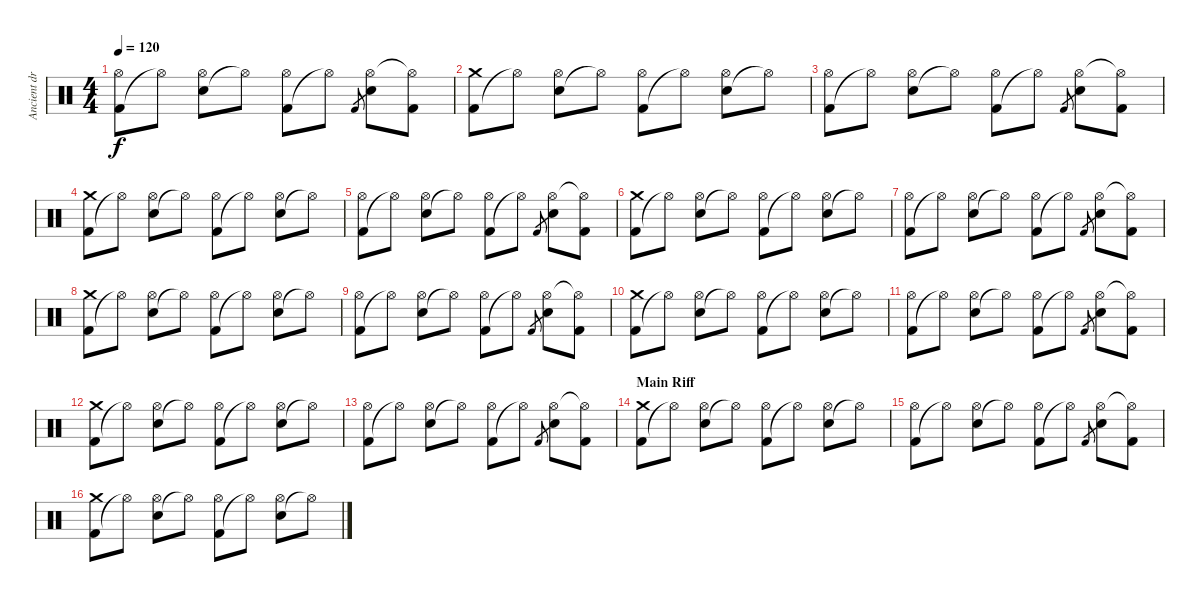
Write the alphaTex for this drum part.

\track ("Ancient drum type things :S" "Ancient dr") {instrument percussion}
\staff {score}
\articulation defaults
\ts (4 4)
\tempo 120
\clef neutral
\ks c
("Kick (hit) 2" "Hi-Hat (open)").8{dy f} "Hi-Hat (open)"{t}.8 ("Electric Snare (hit)" "Hi-Hat (open)").8 "Hi-Hat (open)"{t}.8 ("Kick (hit) 2" "Hi-Hat (open)").8 "Hi-Hat (open)"{t}.8 "Kick (hit) 2".8{gr} ("Electric Snare (hit)" "Hi-Hat (open)").8 ("Kick (hit) 2" "Hi-Hat (open)"{t}).8 |
("Kick (hit) 2" "Crash medium (hit)").8 "Hi-Hat (open)"{t}.8 ("Electric Snare (hit)" "Hi-Hat (open)").8 "Hi-Hat (open)"{t}.8 ("Kick (hit) 2" "Hi-Hat (open)").8 "Hi-Hat (open)"{t}.8 ("Electric Snare (hit)" "Hi-Hat (open)").8 "Hi-Hat (open)"{t}.8 |
("Kick (hit) 2" "Hi-Hat (open)").8 "Hi-Hat (open)"{t}.8 ("Electric Snare (hit)" "Hi-Hat (open)").8 "Hi-Hat (open)"{t}.8 ("Kick (hit) 2" "Hi-Hat (open)").8 "Hi-Hat (open)"{t}.8 "Kick (hit) 2".8{gr} ("Electric Snare (hit)" "Hi-Hat (open)").8 ("Kick (hit) 2" "Hi-Hat (open)"{t}).8 |
("Kick (hit) 2" "Crash medium (hit)").8 "Hi-Hat (open)"{t}.8 ("Electric Snare (hit)" "Hi-Hat (open)").8 "Hi-Hat (open)"{t}.8 ("Kick (hit) 2" "Hi-Hat (open)").8 "Hi-Hat (open)"{t}.8 ("Electric Snare (hit)" "Hi-Hat (open)").8 "Hi-Hat (open)"{t}.8 |
("Kick (hit) 2" "Hi-Hat (open)").8 "Hi-Hat (open)"{t}.8 ("Electric Snare (hit)" "Hi-Hat (open)").8 "Hi-Hat (open)"{t}.8 ("Kick (hit) 2" "Hi-Hat (open)").8 "Hi-Hat (open)"{t}.8 "Kick (hit) 2".8{gr} ("Electric Snare (hit)" "Hi-Hat (open)").8 ("Kick (hit) 2" "Hi-Hat (open)"{t}).8 |
("Kick (hit) 2" "Crash medium (hit)").8 "Hi-Hat (open)"{t}.8 ("Electric Snare (hit)" "Hi-Hat (open)").8 "Hi-Hat (open)"{t}.8 ("Kick (hit) 2" "Hi-Hat (open)").8 "Hi-Hat (open)"{t}.8 ("Electric Snare (hit)" "Hi-Hat (open)").8 "Hi-Hat (open)"{t}.8 |
("Kick (hit) 2" "Hi-Hat (open)").8 "Hi-Hat (open)"{t}.8 ("Electric Snare (hit)" "Hi-Hat (open)").8 "Hi-Hat (open)"{t}.8 ("Kick (hit) 2" "Hi-Hat (open)").8 "Hi-Hat (open)"{t}.8 "Kick (hit) 2".8{gr} ("Electric Snare (hit)" "Hi-Hat (open)").8 ("Kick (hit) 2" "Hi-Hat (open)"{t}).8 |
("Kick (hit) 2" "Crash medium (hit)").8 "Hi-Hat (open)"{t}.8 ("Electric Snare (hit)" "Hi-Hat (open)").8 "Hi-Hat (open)"{t}.8 ("Kick (hit) 2" "Hi-Hat (open)").8 "Hi-Hat (open)"{t}.8 ("Electric Snare (hit)" "Hi-Hat (open)").8 "Hi-Hat (open)"{t}.8 |
("Kick (hit) 2" "Hi-Hat (open)").8 "Hi-Hat (open)"{t}.8 ("Electric Snare (hit)" "Hi-Hat (open)").8 "Hi-Hat (open)"{t}.8 ("Kick (hit) 2" "Hi-Hat (open)").8 "Hi-Hat (open)"{t}.8 "Kick (hit) 2".8{gr} ("Electric Snare (hit)" "Hi-Hat (open)").8 ("Kick (hit) 2" "Hi-Hat (open)"{t}).8 |
("Kick (hit) 2" "Crash medium (hit)").8 "Hi-Hat (open)"{t}.8 ("Electric Snare (hit)" "Hi-Hat (open)").8 "Hi-Hat (open)"{t}.8 ("Kick (hit) 2" "Hi-Hat (open)").8 "Hi-Hat (open)"{t}.8 ("Electric Snare (hit)" "Hi-Hat (open)").8 "Hi-Hat (open)"{t}.8 |
("Kick (hit) 2" "Hi-Hat (open)").8 "Hi-Hat (open)"{t}.8 ("Electric Snare (hit)" "Hi-Hat (open)").8 "Hi-Hat (open)"{t}.8 ("Kick (hit) 2" "Hi-Hat (open)").8 "Hi-Hat (open)"{t}.8 "Kick (hit) 2".8{gr} ("Electric Snare (hit)" "Hi-Hat (open)").8 ("Kick (hit) 2" "Hi-Hat (open)"{t}).8 |
("Kick (hit) 2" "Crash medium (hit)").8 "Hi-Hat (open)"{t}.8 ("Electric Snare (hit)" "Hi-Hat (open)").8 "Hi-Hat (open)"{t}.8 ("Kick (hit) 2" "Hi-Hat (open)").8 "Hi-Hat (open)"{t}.8 ("Electric Snare (hit)" "Hi-Hat (open)").8 "Hi-Hat (open)"{t}.8 |
("Kick (hit) 2" "Hi-Hat (open)").8 "Hi-Hat (open)"{t}.8 ("Electric Snare (hit)" "Hi-Hat (open)").8 "Hi-Hat (open)"{t}.8 ("Kick (hit) 2" "Hi-Hat (open)").8 "Hi-Hat (open)"{t}.8 "Kick (hit) 2".8{gr} ("Electric Snare (hit)" "Hi-Hat (open)").8 ("Kick (hit) 2" "Hi-Hat (open)"{t}).8 |
\section ("" "Main Riff")
("Kick (hit) 2" "Crash medium (hit)").8 "Hi-Hat (open)"{t}.8 ("Electric Snare (hit)" "Hi-Hat (open)").8 "Hi-Hat (open)"{t}.8 ("Kick (hit) 2" "Hi-Hat (open)").8 "Hi-Hat (open)"{t}.8 ("Electric Snare (hit)" "Hi-Hat (open)").8 "Hi-Hat (open)"{t}.8 |
("Kick (hit) 2" "Hi-Hat (open)").8 "Hi-Hat (open)"{t}.8 ("Electric Snare (hit)" "Hi-Hat (open)").8 "Hi-Hat (open)"{t}.8 ("Kick (hit) 2" "Hi-Hat (open)").8 "Hi-Hat (open)"{t}.8 "Kick (hit) 2".8{gr} ("Electric Snare (hit)" "Hi-Hat (open)").8 ("Kick (hit) 2" "Hi-Hat (open)"{t}).8 |
("Kick (hit) 2" "Crash medium (hit)").8 "Hi-Hat (open)"{t}.8 ("Electric Snare (hit)" "Hi-Hat (open)").8 "Hi-Hat (open)"{t}.8 ("Kick (hit) 2" "Hi-Hat (open)").8 "Hi-Hat (open)"{t}.8 ("Electric Snare (hit)" "Hi-Hat (open)").8 "Hi-Hat (open)"{t}.8
